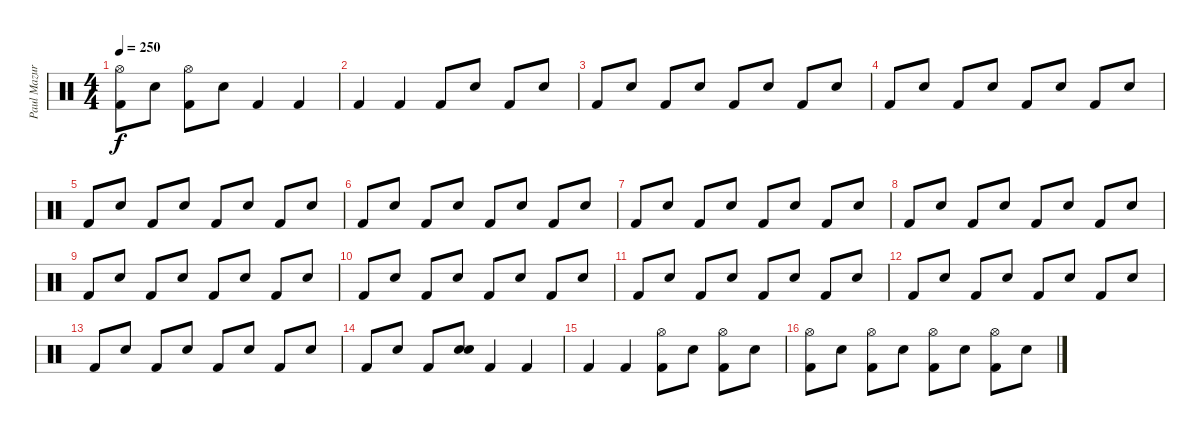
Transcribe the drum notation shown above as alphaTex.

\track ("Paul Mazurkiewicz" "Paul Mazur") {instrument percussion}
\staff {score}
\articulation defaults
\ts (4 4)
\tempo 250
\clef neutral
\ks c
("Hi-Hat (open)" "Kick (hit) 2").8{dy f} "Electric Snare (hit)".8 ("Hi-Hat (open)" "Kick (hit) 2").8 "Electric Snare (hit)".8 "Kick (hit) 2".4 "Kick (hit) 2".4 |
"Kick (hit) 2".4 "Kick (hit) 2".4 "Kick (hit) 2".8 "Electric Snare (hit)".8 "Kick (hit) 2".8 "Electric Snare (hit)".8 |
"Kick (hit) 2".8 "Electric Snare (hit)".8 "Kick (hit) 2".8 "Electric Snare (hit)".8 "Kick (hit) 2".8 "Electric Snare (hit)".8 "Kick (hit) 2".8 "Electric Snare (hit)".8 |
"Kick (hit) 2".8 "Electric Snare (hit)".8 "Kick (hit) 2".8 "Electric Snare (hit)".8 "Kick (hit) 2".8 "Electric Snare (hit)".8 "Kick (hit) 2".8 "Electric Snare (hit)".8 |
"Kick (hit) 2".8 "Electric Snare (hit)".8 "Kick (hit) 2".8 "Electric Snare (hit)".8 "Kick (hit) 2".8 "Electric Snare (hit)".8 "Kick (hit) 2".8 "Electric Snare (hit)".8 |
"Kick (hit) 2".8 "Electric Snare (hit)".8 "Kick (hit) 2".8 "Electric Snare (hit)".8 "Kick (hit) 2".8 "Electric Snare (hit)".8 "Kick (hit) 2".8 "Electric Snare (hit)".8 |
"Kick (hit) 2".8 "Electric Snare (hit)".8 "Kick (hit) 2".8 "Electric Snare (hit)".8 "Kick (hit) 2".8 "Electric Snare (hit)".8 "Kick (hit) 2".8 "Electric Snare (hit)".8 |
"Kick (hit) 2".8 "Electric Snare (hit)".8 "Kick (hit) 2".8 "Electric Snare (hit)".8 "Kick (hit) 2".8 "Electric Snare (hit)".8 "Kick (hit) 2".8 "Electric Snare (hit)".8 |
"Kick (hit) 2".8 "Electric Snare (hit)".8 "Kick (hit) 2".8 "Electric Snare (hit)".8 "Kick (hit) 2".8 "Electric Snare (hit)".8 "Kick (hit) 2".8 "Electric Snare (hit)".8 |
"Kick (hit) 2".8 "Electric Snare (hit)".8 "Kick (hit) 2".8 "Electric Snare (hit)".8 "Kick (hit) 2".8 "Electric Snare (hit)".8 "Kick (hit) 2".8 "Electric Snare (hit)".8 |
"Kick (hit) 2".8 "Electric Snare (hit)".8 "Kick (hit) 2".8 "Electric Snare (hit)".8 "Kick (hit) 2".8 "Electric Snare (hit)".8 "Kick (hit) 2".8 "Electric Snare (hit)".8 |
"Kick (hit) 2".8 "Electric Snare (hit)".8 "Kick (hit) 2".8 "Electric Snare (hit)".8 "Kick (hit) 2".8 "Electric Snare (hit)".8 "Kick (hit) 2".8 "Electric Snare (hit)".8 |
"Kick (hit) 2".8 "Electric Snare (hit)".8 "Kick (hit) 2".8 "Electric Snare (hit)".8 "Kick (hit) 2".8 "Electric Snare (hit)".8 "Kick (hit) 2".8 "Electric Snare (hit)".8 |
"Kick (hit) 2".8 "Electric Snare (hit)".8 "Kick (hit) 2".8 ("Electric Snare (hit)" "Snare (hit) 2").8 "Kick (hit) 2".4 "Kick (hit) 2".4 |
"Kick (hit) 2".4 "Kick (hit) 2".4 ("Hi-Hat (open)" "Kick (hit) 2").8 "Electric Snare (hit)".8 ("Hi-Hat (open)" "Kick (hit) 2").8 "Electric Snare (hit)".8 |
("Hi-Hat (open)" "Kick (hit) 2").8 "Electric Snare (hit)".8 ("Hi-Hat (open)" "Kick (hit) 2").8 "Electric Snare (hit)".8 ("Hi-Hat (open)" "Kick (hit) 2").8 "Electric Snare (hit)".8 ("Hi-Hat (open)" "Kick (hit) 2").8 "Electric Snare (hit)".8
